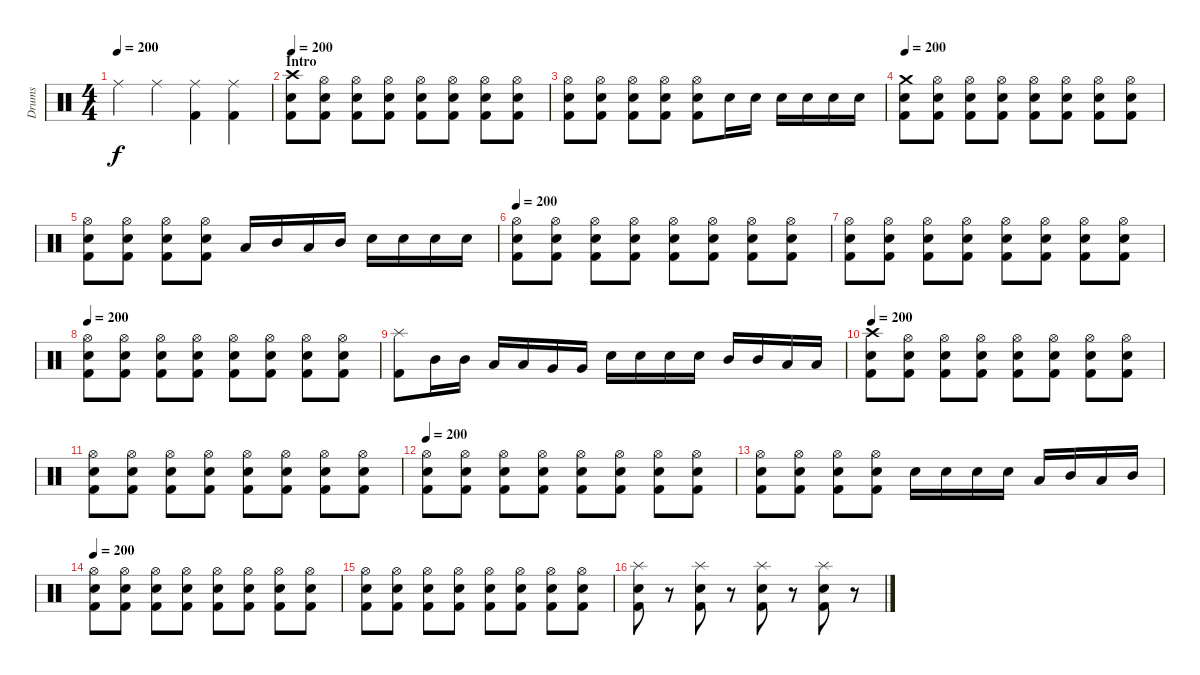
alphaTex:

\track ("Drums" "Drums") {instrument percussion}
\staff {score}
\articulation defaults
\ts (4 4)
\tempo 200
\clef neutral
\ks c "Ride (middle)".4{dy f} "Ride (middle)".4
("Ride (middle)" "Kick (hit) 2").4 ("Ride (middle)" "Kick (hit) 2").4 |
\section ("" "Intro")
\tempo 200
("Crash high (hit)" "Snare (hit) 2" "Kick (hit) 2").8 ("Hi-Hat (open)" "Snare (hit) 2" "Kick (hit) 2").8 ("Hi-Hat (open)" "Snare (hit) 2" "Kick (hit) 2").8 ("Hi-Hat (open)" "Snare (hit) 2" "Kick (hit) 2").8 ("Hi-Hat (open)" "Snare (hit) 2" "Kick (hit) 2").8 ("Hi-Hat (open)" "Snare (hit) 2" "Kick (hit) 2").8 ("Hi-Hat (open)" "Snare (hit) 2" "Kick (hit) 2").8 ("Hi-Hat (open)" "Snare (hit) 2" "Kick (hit) 2").8 |
("Hi-Hat (open)" "Snare (hit) 2" "Kick (hit) 2").8 ("Hi-Hat (open)" "Snare (hit) 2" "Kick (hit) 2").8 ("Hi-Hat (open)" "Snare (hit) 2" "Kick (hit) 2").8 ("Hi-Hat (open)" "Snare (hit) 2" "Kick (hit) 2").8 ("Hi-Hat (open)" "Snare (hit) 2" "Kick (hit) 2").8 "Snare (hit) 2".16 "Snare (hit) 2".16 "Snare (hit) 2".16 "Snare (hit) 2".16 "Snare (hit) 2".16 "Snare (hit) 2".16 |
\tempo 200
("Crash medium (hit)" "Snare (hit) 2" "Kick (hit) 2").8 ("Hi-Hat (open)" "Snare (hit) 2" "Kick (hit) 2").8 ("Hi-Hat (open)" "Snare (hit) 2" "Kick (hit) 2").8 ("Hi-Hat (open)" "Snare (hit) 2" "Kick (hit) 2").8 ("Hi-Hat (open)" "Snare (hit) 2" "Kick (hit) 2").8 ("Hi-Hat (open)" "Snare (hit) 2" "Kick (hit) 2").8 ("Hi-Hat (open)" "Snare (hit) 2" "Kick (hit) 2").8 ("Hi-Hat (open)" "Snare (hit) 2" "Kick (hit) 2").8 |
("Hi-Hat (open)" "Snare (hit) 2" "Kick (hit) 2").8 ("Hi-Hat (open)" "Snare (hit) 2" "Kick (hit) 2").8 ("Hi-Hat (open)" "Snare (hit) 2" "Kick (hit) 2").8 ("Hi-Hat (open)" "Snare (hit) 2" "Kick (hit) 2").8 "Low Tom (hit)".16 "Mid Tom (hit)".16 "Low Tom (hit)".16 "Mid Tom (hit)".16 "Snare (hit) 2".16 "Snare (hit) 2".16 "Snare (hit) 2".16 "Snare (hit) 2".16 |
\tempo 200
("Hi-Hat (open)" "Snare (hit) 2" "Kick (hit) 2").8 ("Hi-Hat (open)" "Snare (hit) 2" "Kick (hit) 2").8 ("Hi-Hat (open)" "Snare (hit) 2" "Kick (hit) 2").8 ("Hi-Hat (open)" "Snare (hit) 2" "Kick (hit) 2").8 ("Hi-Hat (open)" "Snare (hit) 2" "Kick (hit) 2").8 ("Hi-Hat (open)" "Snare (hit) 2" "Kick (hit) 2").8 ("Hi-Hat (open)" "Snare (hit) 2" "Kick (hit) 2").8 ("Hi-Hat (open)" "Snare (hit) 2" "Kick (hit) 2").8 |
("Hi-Hat (open)" "Snare (hit) 2" "Kick (hit) 2").8 ("Hi-Hat (open)" "Snare (hit) 2" "Kick (hit) 2").8 ("Hi-Hat (open)" "Snare (hit) 2" "Kick (hit) 2").8 ("Hi-Hat (open)" "Snare (hit) 2" "Kick (hit) 2").8 ("Hi-Hat (open)" "Snare (hit) 2" "Kick (hit) 2").8 ("Hi-Hat (open)" "Snare (hit) 2" "Kick (hit) 2").8 ("Hi-Hat (open)" "Snare (hit) 2" "Kick (hit) 2").8 ("Hi-Hat (open)" "Snare (hit) 2" "Kick (hit) 2").8 |
\tempo 200
("Hi-Hat (open)" "Snare (hit) 2" "Kick (hit) 2").8 ("Hi-Hat (open)" "Snare (hit) 2" "Kick (hit) 2").8 ("Hi-Hat (open)" "Snare (hit) 2" "Kick (hit) 2").8 ("Hi-Hat (open)" "Snare (hit) 2" "Kick (hit) 2").8 ("Hi-Hat (open)" "Snare (hit) 2" "Kick (hit) 2").8 ("Hi-Hat (open)" "Snare (hit) 2" "Kick (hit) 2").8 ("Hi-Hat (open)" "Snare (hit) 2" "Kick (hit) 2").8 ("Hi-Hat (open)" "Snare (hit) 2" "Kick (hit) 2").8 |
("Splash (hit)" "Kick (hit) 2").8 "Mid Tom (hit)".16 "Mid Tom (hit)".16 "Low Tom (hit)".16 "Low Tom (hit)".16 "Very Low Tom (hit)".16 "Very Low Tom (hit)".16 "Snare (hit) 2".16 "Snare (hit) 2".16 "Snare (hit) 2".16 "Snare (hit) 2".16 "Mid Tom (hit)".16 "Mid Tom (hit)".16 "Low Tom (hit)".16 "Low Tom (hit)".16 |
\tempo 200
("Crash high (hit)" "Snare (hit) 2" "Kick (hit) 2").8 ("Hi-Hat (open)" "Snare (hit) 2" "Kick (hit) 2").8 ("Hi-Hat (open)" "Snare (hit) 2" "Kick (hit) 2").8 ("Hi-Hat (open)" "Snare (hit) 2" "Kick (hit) 2").8 ("Hi-Hat (open)" "Snare (hit) 2" "Kick (hit) 2").8 ("Hi-Hat (open)" "Snare (hit) 2" "Kick (hit) 2").8 ("Hi-Hat (open)" "Snare (hit) 2" "Kick (hit) 2").8 ("Hi-Hat (open)" "Snare (hit) 2" "Kick (hit) 2").8 |
("Hi-Hat (open)" "Snare (hit) 2" "Kick (hit) 2").8 ("Hi-Hat (open)" "Snare (hit) 2" "Kick (hit) 2").8 ("Hi-Hat (open)" "Snare (hit) 2" "Kick (hit) 2").8 ("Hi-Hat (open)" "Snare (hit) 2" "Kick (hit) 2").8 ("Hi-Hat (open)" "Snare (hit) 2" "Kick (hit) 2").8 ("Hi-Hat (open)" "Snare (hit) 2" "Kick (hit) 2").8 ("Hi-Hat (open)" "Snare (hit) 2" "Kick (hit) 2").8 ("Hi-Hat (open)" "Snare (hit) 2" "Kick (hit) 2").8 |
\tempo 200
("Hi-Hat (open)" "Snare (hit) 2" "Kick (hit) 2").8 ("Hi-Hat (open)" "Snare (hit) 2" "Kick (hit) 2").8 ("Hi-Hat (open)" "Snare (hit) 2" "Kick (hit) 2").8 ("Hi-Hat (open)" "Snare (hit) 2" "Kick (hit) 2").8 ("Hi-Hat (open)" "Snare (hit) 2" "Kick (hit) 2").8 ("Hi-Hat (open)" "Snare (hit) 2" "Kick (hit) 2").8 ("Hi-Hat (open)" "Snare (hit) 2" "Kick (hit) 2").8 ("Hi-Hat (open)" "Snare (hit) 2" "Kick (hit) 2").8 |
("Hi-Hat (open)" "Snare (hit) 2" "Kick (hit) 2").8 ("Hi-Hat (open)" "Snare (hit) 2" "Kick (hit) 2").8 ("Hi-Hat (open)" "Snare (hit) 2" "Kick (hit) 2").8 ("Hi-Hat (open)" "Snare (hit) 2" "Kick (hit) 2").8 "Snare (hit) 2".16 "Snare (hit) 2".16 "Snare (hit) 2".16 "Snare (hit) 2".16 "Low Tom (hit)".16 "Mid Tom (hit)".16 "Low Tom (hit)".16 "Mid Tom (hit)".16 |
\tempo 200
("Hi-Hat (open)" "Snare (hit) 2" "Kick (hit) 2").8 ("Hi-Hat (open)" "Snare (hit) 2" "Kick (hit) 2").8 ("Hi-Hat (open)" "Snare (hit) 2" "Kick (hit) 2").8 ("Hi-Hat (open)" "Snare (hit) 2" "Kick (hit) 2").8 ("Hi-Hat (open)" "Snare (hit) 2" "Kick (hit) 2").8 ("Hi-Hat (open)" "Snare (hit) 2" "Kick (hit) 2").8 ("Hi-Hat (open)" "Snare (hit) 2" "Kick (hit) 2").8 ("Hi-Hat (open)" "Snare (hit) 2" "Kick (hit) 2").8 |
("Hi-Hat (open)" "Snare (hit) 2" "Kick (hit) 2").8 ("Hi-Hat (open)" "Snare (hit) 2" "Kick (hit) 2").8 ("Hi-Hat (open)" "Snare (hit) 2" "Kick (hit) 2").8 ("Hi-Hat (open)" "Snare (hit) 2" "Kick (hit) 2").8 ("Hi-Hat (open)" "Snare (hit) 2" "Kick (hit) 2").8 ("Hi-Hat (open)" "Snare (hit) 2" "Kick (hit) 2").8 ("Hi-Hat (open)" "Snare (hit) 2" "Kick (hit) 2").8 ("Hi-Hat (open)" "Snare (hit) 2" "Kick (hit) 2").8 |
("Splash (hit)" "Snare (hit) 2" "Kick (hit) 2").8 r.8 ("Splash (hit)" "Snare (hit) 2" "Kick (hit) 2").8 r.8 ("Splash (hit)" "Snare (hit) 2" "Kick (hit) 2").8 r.8 ("Splash (hit)" "Snare (hit) 2" "Kick (hit) 2").8 r.8
